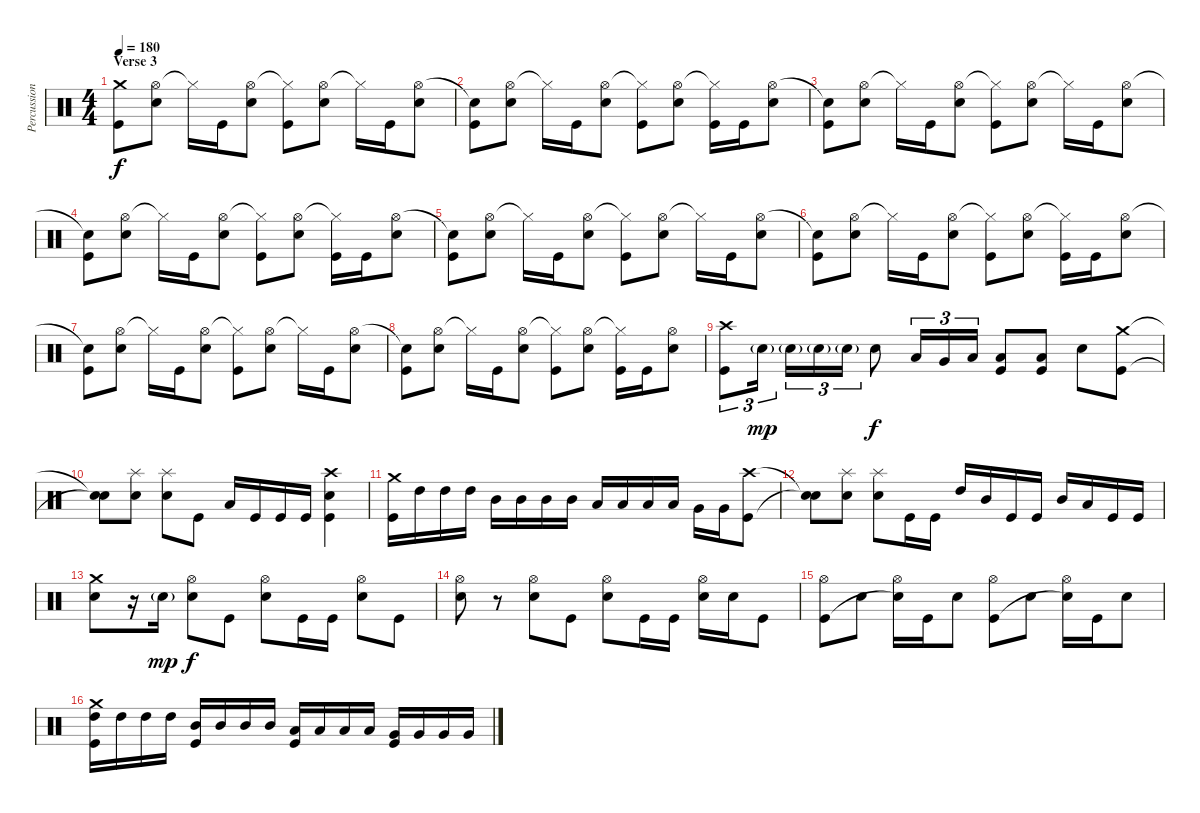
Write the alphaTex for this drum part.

\track ("Percussion" "Percussion") {instrument percussion}
\staff {score}
\articulation defaults
\ts (4 4)
\section ("" "Verse 3")
\tempo 180
\clef neutral
\ks c
("Crash medium (hit)" "Kick (hit)").8{dy f} ("Hi-Hat (open)" "Electric Snare (hit)").8 "Hi-Hat (closed)"{t}.16 "Kick (hit)".16 ("Hi-Hat (open)" "Electric Snare (hit)").8 ("Hi-Hat (closed)"{t} "Kick (hit)").8 ("Hi-Hat (open)" "Electric Snare (hit)").8 "Hi-Hat (closed)"{t}.16 "Kick (hit)".16 ("Hi-Hat (open)" "Electric Snare (hit)").8 |
("Snare (hit)"{t} "Kick (hit)").8 ("Hi-Hat (open)" "Electric Snare (hit)").8 "Hi-Hat (closed)"{t}.16 "Kick (hit)".16 ("Hi-Hat (open)" "Electric Snare (hit)").8 ("Hi-Hat (closed)"{t} "Kick (hit)").8 ("Hi-Hat (open)" "Electric Snare (hit)").8 ("Hi-Hat (closed)"{t} "Kick (hit)").16 "Kick (hit)".16 ("Hi-Hat (open)" "Electric Snare (hit)").8 |
("Snare (hit)"{t} "Kick (hit)").8 ("Hi-Hat (open)" "Electric Snare (hit)").8 "Hi-Hat (closed)"{t}.16 "Kick (hit)".16 ("Hi-Hat (open)" "Electric Snare (hit)").8 ("Hi-Hat (closed)"{t} "Kick (hit)").8 ("Hi-Hat (open)" "Electric Snare (hit)").8 "Hi-Hat (closed)"{t}.16 "Kick (hit)".16 ("Hi-Hat (open)" "Electric Snare (hit)").8 |
("Snare (hit)"{t} "Kick (hit)").8 ("Hi-Hat (open)" "Electric Snare (hit)").8 "Hi-Hat (closed)"{t}.16 "Kick (hit)".16 ("Hi-Hat (open)" "Electric Snare (hit)").8 ("Hi-Hat (closed)"{t} "Kick (hit)").8 ("Hi-Hat (open)" "Electric Snare (hit)").8 ("Hi-Hat (closed)"{t} "Kick (hit)").16 "Kick (hit)".16 ("Hi-Hat (open)" "Electric Snare (hit)").8 |
("Snare (hit)"{t} "Kick (hit)").8 ("Hi-Hat (open)" "Electric Snare (hit)").8 "Hi-Hat (closed)"{t}.16 "Kick (hit)".16 ("Hi-Hat (open)" "Electric Snare (hit)").8 ("Hi-Hat (closed)"{t} "Kick (hit)").8 ("Hi-Hat (open)" "Electric Snare (hit)").8 "Hi-Hat (closed)"{t}.16 "Kick (hit)".16 ("Hi-Hat (open)" "Electric Snare (hit)").8 |
("Snare (hit)"{t} "Kick (hit)").8 ("Hi-Hat (open)" "Electric Snare (hit)").8 "Hi-Hat (closed)"{t}.16 "Kick (hit)".16 ("Hi-Hat (open)" "Electric Snare (hit)").8 ("Hi-Hat (closed)"{t} "Kick (hit)").8 ("Hi-Hat (open)" "Electric Snare (hit)").8 ("Hi-Hat (closed)"{t} "Kick (hit)").16 "Kick (hit)".16 ("Hi-Hat (open)" "Electric Snare (hit)").8 |
("Snare (hit)"{t} "Kick (hit)").8 ("Hi-Hat (open)" "Electric Snare (hit)").8 "Hi-Hat (closed)"{t}.16 "Kick (hit)".16 ("Hi-Hat (open)" "Electric Snare (hit)").8 ("Hi-Hat (closed)"{t} "Kick (hit)").8 ("Hi-Hat (open)" "Electric Snare (hit)").8 "Hi-Hat (closed)"{t}.16 "Kick (hit)".16 ("Hi-Hat (open)" "Electric Snare (hit)").8 |
("Snare (hit)"{t} "Kick (hit)").8 ("Hi-Hat (open)" "Electric Snare (hit)").8 "Hi-Hat (closed)"{t}.16 "Kick (hit)".16 ("Hi-Hat (open)" "Electric Snare (hit)").8 ("Hi-Hat (closed)"{t} "Kick (hit)").8 ("Hi-Hat (open)" "Electric Snare (hit)").8 ("Hi-Hat (closed)"{t} "Kick (hit)").16 "Kick (hit)".16 ("Hi-Hat (open)" "Electric Snare (hit)").8 |
("Crash high (hit)" "Kick (hit)").8{tu (3 2)} "Electric Snare (hit)"{g}.16{tu (3 2) dy mp beam splitsecondary} "Electric Snare (hit)"{g}.16{tu (3 2)} "Electric Snare (hit)"{g}.16{tu (3 2)} "Electric Snare (hit)"{g}.16{tu (3 2)} "Electric Snare (hit)".8{dy f} "Low Tom (hit)".16{tu (3 2)} "Very Low Tom (hit)".16{tu (3 2)} "Low Floor Tom (hit)".16{tu (3 2)} ("Low Floor Tom (hit)" "Kick (hit)").8 ("Low Floor Tom (hit)" "Kick (hit)").8 "Electric Snare (hit)".8 ("Crash medium (hit)" "Kick (hit)").8 |
("Snare (hit)"{t} "Snare (hit)"{t}).8 ("Splash (hit)" "Electric Snare (hit)").8 ("Splash (hit)" "Electric Snare (hit)").8 "Kick (hit)".8 "Low Floor Tom (hit)".16 "Kick (hit)".16 "Kick (hit)".16 "Kick (hit)".16 ("Crash high (hit)" "Electric Snare (hit)" "Kick (hit)").4 |
("Crash medium (hit)" "Kick (hit)").16 "High Tom (hit)".16 "High Tom (hit)".16 "High Tom (hit)".16 "Mid Tom (hit)".16 "Mid Tom (hit)".16 "Mid Tom (hit)".16 "Mid Tom (hit)".16 "Low Tom (hit)".16 "Low Tom (hit)".16 "Low Tom (hit)".16 "Low Tom (hit)".16 "Very Low Tom (hit)".16 "Very Low Tom (hit)".16 ("Crash high (hit)" "Kick (hit)").8 |
("Snare (hit)"{t} "Snare (hit)"{t}).8 ("Splash (hit)" "Electric Snare (hit)").8 ("Splash (hit)" "Electric Snare (hit)").8 "Kick (hit)".16 "Kick (hit)".16 "High Tom (hit)".16 "Mid Tom (hit)".16 "Kick (hit)".16 "Kick (hit)".16 "Mid Tom (hit)".16 "Low Tom (hit)".16 "Kick (hit)".16 "Kick (hit)".16 |
("Crash medium (hit)" "Electric Snare (hit)").8 r.16 "Electric Snare (hit)"{g}.16{dy mp} ("Hi-Hat (open)" "Electric Snare (hit)").8{dy f} "Kick (hit)".8 ("Hi-Hat (open)" "Electric Snare (hit)").8 "Kick (hit)".16 "Kick (hit)".16 ("Hi-Hat (open)" "Electric Snare (hit)").8 "Kick (hit)".8 |
("Hi-Hat (open)" "Electric Snare (hit)").8 r.8 ("Hi-Hat (open)" "Electric Snare (hit)").8 "Kick (hit)".8 ("Hi-Hat (open)" "Electric Snare (hit)").8 "Kick (hit)".16 "Kick (hit)".16 ("Hi-Hat (open)" "Electric Snare (hit)").16 "Electric Snare (hit)".16 "Kick (hit)".8 |
("Hi-Hat (open)" "Kick (hit)").8 "Electric Snare (hit)".8 ("Hi-Hat (open)" "Snare (hit)"{t}).16 "Kick (hit)".16 "Electric Snare (hit)".8 ("Hi-Hat (open)" "Kick (hit)").8 "Electric Snare (hit)".8 ("Hi-Hat (open)" "Snare (hit)"{t}).16 "Kick (hit)".16 "Electric Snare (hit)".8 |
("Crash medium (hit)" "High Tom (hit)" "Kick (hit)").16 "High Tom (hit)".16 "High Tom (hit)".16 "High Tom (hit)".16 ("Mid Tom (hit)" "Kick (hit)").16 "Mid Tom (hit)".16 "Mid Tom (hit)".16 "Mid Tom (hit)".16 ("Low Tom (hit)" "Kick (hit)").16 "Low Tom (hit)".16 "Low Tom (hit)".16 "Low Tom (hit)".16 ("Very Low Tom (hit)" "Kick (hit)").16 "Very Low Tom (hit)".16 "Very Low Tom (hit)".16 "Very Low Tom (hit)".16
